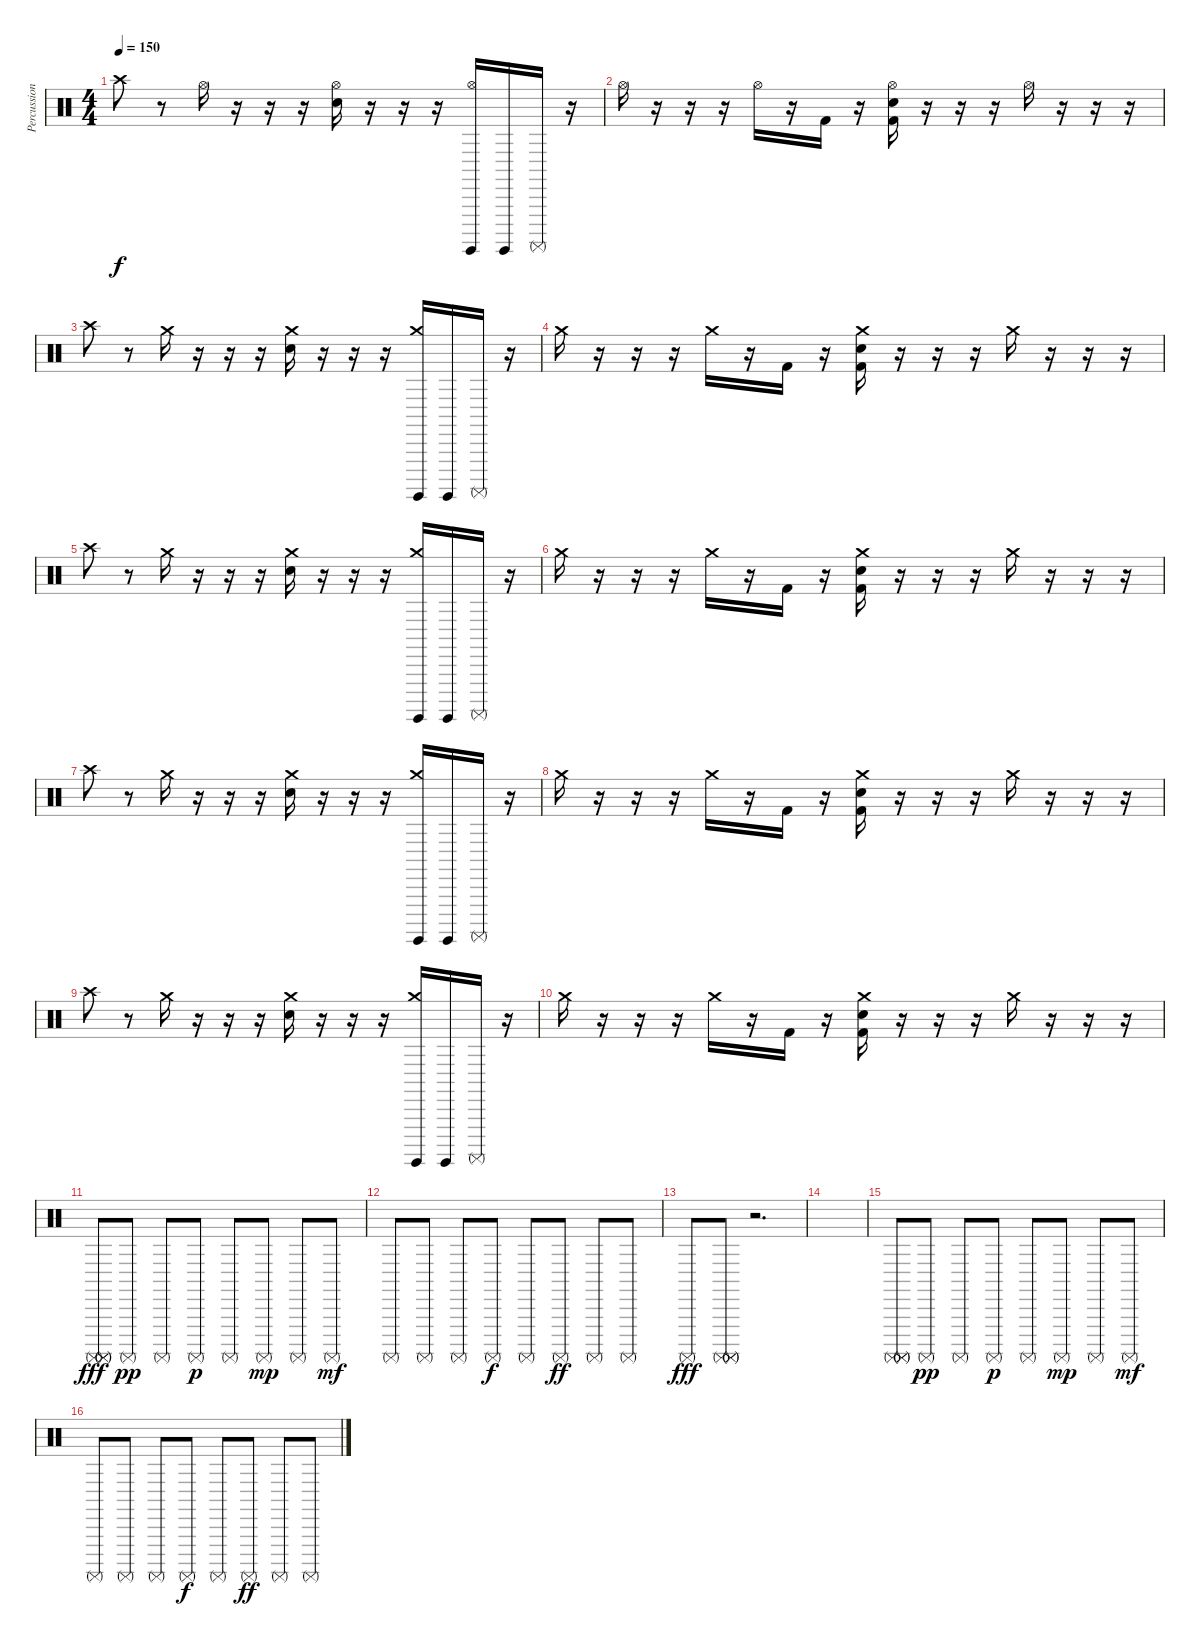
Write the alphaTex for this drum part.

\track ("Percussions" "Percussion") {instrument percussion}
\staff {score}
\articulation defaults
\ts (4 4)
\tempo 150
\clef neutral
\ks c "Crash high (hit)".8{dy f}
r.8 "Hi-Hat (open)".16 r.16 r.16 r.16 ("Hi-Hat (open)" "Electric Snare (hit)").16 r.16 r.16 r.16 ("Hi-Hat (open)" "Surdo (hit)").16 "Surdo (hit)".16 "Surdo (mute)".16 r.16 |
"Hi-Hat (open)".16 r.16 r.16 r.16 "Hi-Hat (open)".16 r.16 "Kick (hit) 2".16 r.16 ("Hi-Hat (open)" "Electric Snare (hit)" "Kick (hit) 2").16 r.16 r.16 r.16 "Hi-Hat (open)".16 r.16 r.16 r.16 |
"Crash high (hit)".8 r.8 "Crash medium (hit)".16 r.16 r.16 r.16 ("Crash medium (hit)" "Electric Snare (hit)").16 r.16 r.16 r.16 ("Crash medium (hit)" "Surdo (hit)").16 "Surdo (hit)".16 "Surdo (mute)".16 r.16 |
"Crash medium (hit)".16 r.16 r.16 r.16 "Crash medium (hit)".16 r.16 "Kick (hit) 2".16 r.16 ("Crash medium (hit)" "Electric Snare (hit)" "Kick (hit) 2").16 r.16 r.16 r.16 "Crash medium (hit)".16 r.16 r.16 r.16 |
"Crash high (hit)".8 r.8 "Crash medium (hit)".16 r.16 r.16 r.16 ("Crash medium (hit)" "Electric Snare (hit)").16 r.16 r.16 r.16 ("Crash medium (hit)" "Surdo (hit)").16 "Surdo (hit)".16 "Surdo (mute)".16 r.16 |
"Crash medium (hit)".16 r.16 r.16 r.16 "Crash medium (hit)".16 r.16 "Kick (hit) 2".16 r.16 ("Crash medium (hit)" "Electric Snare (hit)" "Kick (hit) 2").16 r.16 r.16 r.16 "Crash medium (hit)".16 r.16 r.16 r.16 |
"Crash high (hit)".8 r.8 "Crash medium (hit)".16 r.16 r.16 r.16 ("Crash medium (hit)" "Electric Snare (hit)").16 r.16 r.16 r.16 ("Crash medium (hit)" "Surdo (hit)").16 "Surdo (hit)".16 "Surdo (mute)".16 r.16 |
"Crash medium (hit)".16 r.16 r.16 r.16 "Crash medium (hit)".16 r.16 "Kick (hit) 2".16 r.16 ("Crash medium (hit)" "Electric Snare (hit)" "Kick (hit) 2").16 r.16 r.16 r.16 "Crash medium (hit)".16 r.16 r.16 r.16 |
"Crash high (hit)".8 r.8 "Crash medium (hit)".16 r.16 r.16 r.16 ("Crash medium (hit)" "Electric Snare (hit)").16 r.16 r.16 r.16 ("Crash medium (hit)" "Surdo (hit)").16 "Surdo (hit)".16 "Surdo (mute)".16 r.16 |
"Crash medium (hit)".16 r.16 r.16 r.16 "Crash medium (hit)".16 r.16 "Kick (hit) 2".16 r.16 ("Crash medium (hit)" "Electric Snare (hit)" "Kick (hit) 2").16 r.16 r.16 r.16 "Crash medium (hit)".16 r.16 r.16 r.16 |
("Surdo (mute)" "Surdo (mute)" "Surdo (mute)").8{dy fff} "Surdo (mute)".8{dy pp} "Surdo (mute)".8 "Surdo (mute)".8{dy p} "Surdo (mute)".8 "Surdo (mute)".8{dy mp} "Surdo (mute)".8 "Surdo (mute)".8{dy mf} |
"Surdo (mute)".8 "Surdo (mute)".8 "Surdo (mute)".8 "Surdo (mute)".8{dy f} "Surdo (mute)".8 "Surdo (mute)".8{dy ff} "Surdo (mute)".8 "Surdo (mute)".8 |
"Surdo (mute)".8{dy fff} ("Surdo (mute)" "Surdo (mute)" "Surdo (mute)").8 r.2{d} |
|
("Surdo (mute)" "Surdo (mute)" "Surdo (mute)").8 "Surdo (mute)".8{dy pp} "Surdo (mute)".8 "Surdo (mute)".8{dy p} "Surdo (mute)".8 "Surdo (mute)".8{dy mp} "Surdo (mute)".8 "Surdo (mute)".8{dy mf} |
"Surdo (mute)".8 "Surdo (mute)".8 "Surdo (mute)".8 "Surdo (mute)".8{dy f} "Surdo (mute)".8 "Surdo (mute)".8{dy ff} "Surdo (mute)".8 "Surdo (mute)".8
